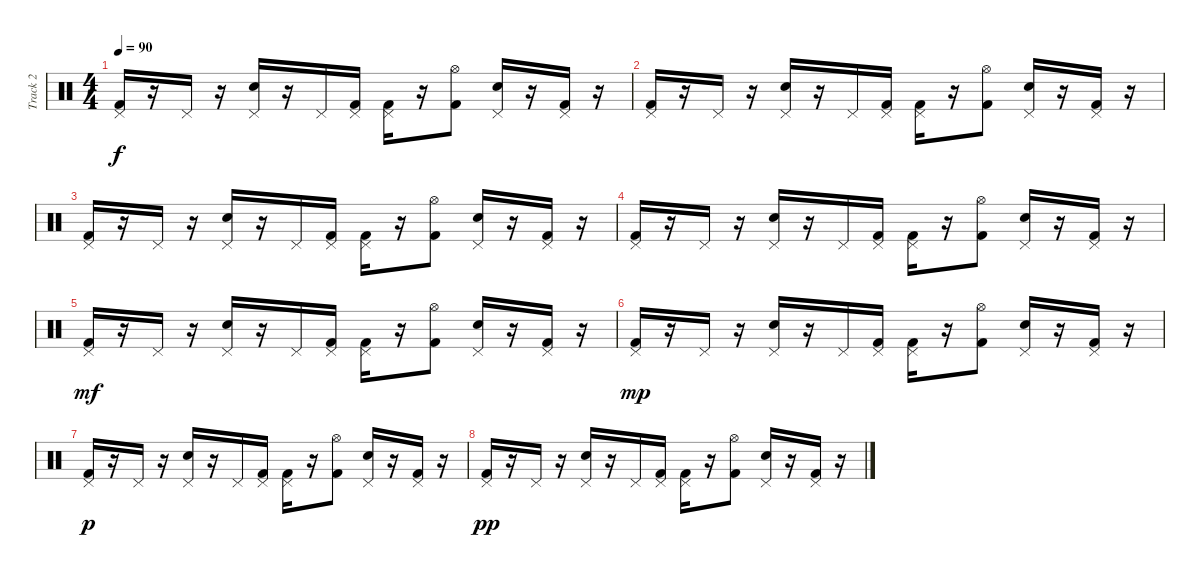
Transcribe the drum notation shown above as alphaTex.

\track ("Track 2" "Track 2") {instrument percussion}
\staff {score}
\articulation defaults
\ts (4 4)
\tempo 90
\clef neutral
\ks c
("Pedal Hi-Hat (hit)" "Kick (hit) 2").16{dy f} r.16 "Pedal Hi-Hat (hit)".16 r.16 ("Pedal Hi-Hat (hit)" "Electric Snare (hit)").16 r.16 "Pedal Hi-Hat (hit)".16 ("Pedal Hi-Hat (hit)" "Kick (hit) 2").16 ("Pedal Hi-Hat (hit)" "Kick (hit) 2").16 r.16 ("Hi-Hat (open)" "Kick (hit) 2").8 ("Pedal Hi-Hat (hit)" "Electric Snare (hit)").16 r.16 ("Pedal Hi-Hat (hit)" "Kick (hit) 2").16 r.16 |
("Pedal Hi-Hat (hit)" "Kick (hit) 2").16 r.16 "Pedal Hi-Hat (hit)".16 r.16 ("Pedal Hi-Hat (hit)" "Electric Snare (hit)").16 r.16 "Pedal Hi-Hat (hit)".16 ("Pedal Hi-Hat (hit)" "Kick (hit) 2").16 ("Pedal Hi-Hat (hit)" "Kick (hit) 2").16 r.16 ("Hi-Hat (open)" "Kick (hit) 2").8 ("Pedal Hi-Hat (hit)" "Electric Snare (hit)").16 r.16 ("Pedal Hi-Hat (hit)" "Kick (hit) 2").16 r.16 |
("Pedal Hi-Hat (hit)" "Kick (hit) 2").16 r.16 "Pedal Hi-Hat (hit)".16 r.16 ("Pedal Hi-Hat (hit)" "Electric Snare (hit)").16 r.16 "Pedal Hi-Hat (hit)".16 ("Pedal Hi-Hat (hit)" "Kick (hit) 2").16 ("Pedal Hi-Hat (hit)" "Kick (hit) 2").16 r.16 ("Hi-Hat (open)" "Kick (hit) 2").8 ("Pedal Hi-Hat (hit)" "Electric Snare (hit)").16 r.16 ("Pedal Hi-Hat (hit)" "Kick (hit) 2").16 r.16 |
("Pedal Hi-Hat (hit)" "Kick (hit) 2").16 r.16 "Pedal Hi-Hat (hit)".16 r.16 ("Pedal Hi-Hat (hit)" "Electric Snare (hit)").16 r.16 "Pedal Hi-Hat (hit)".16 ("Pedal Hi-Hat (hit)" "Kick (hit) 2").16 ("Pedal Hi-Hat (hit)" "Kick (hit) 2").16 r.16 ("Hi-Hat (open)" "Kick (hit) 2").8 ("Pedal Hi-Hat (hit)" "Electric Snare (hit)").16 r.16 ("Pedal Hi-Hat (hit)" "Kick (hit) 2").16 r.16 |
("Pedal Hi-Hat (hit)" "Kick (hit) 2").16{dy mf} r.16 "Pedal Hi-Hat (hit)".16 r.16 ("Pedal Hi-Hat (hit)" "Electric Snare (hit)").16 r.16 "Pedal Hi-Hat (hit)".16 ("Pedal Hi-Hat (hit)" "Kick (hit) 2").16 ("Pedal Hi-Hat (hit)" "Kick (hit) 2").16 r.16 ("Hi-Hat (open)" "Kick (hit) 2").8 ("Pedal Hi-Hat (hit)" "Electric Snare (hit)").16 r.16 ("Pedal Hi-Hat (hit)" "Kick (hit) 2").16 r.16 |
("Pedal Hi-Hat (hit)" "Kick (hit) 2").16{dy mp} r.16 "Pedal Hi-Hat (hit)".16 r.16 ("Pedal Hi-Hat (hit)" "Electric Snare (hit)").16 r.16 "Pedal Hi-Hat (hit)".16 ("Pedal Hi-Hat (hit)" "Kick (hit) 2").16 ("Pedal Hi-Hat (hit)" "Kick (hit) 2").16 r.16 ("Hi-Hat (open)" "Kick (hit) 2").8 ("Pedal Hi-Hat (hit)" "Electric Snare (hit)").16 r.16 ("Pedal Hi-Hat (hit)" "Kick (hit) 2").16 r.16 |
("Pedal Hi-Hat (hit)" "Kick (hit) 2").16{dy p} r.16 "Pedal Hi-Hat (hit)".16 r.16 ("Pedal Hi-Hat (hit)" "Electric Snare (hit)").16 r.16 "Pedal Hi-Hat (hit)".16 ("Pedal Hi-Hat (hit)" "Kick (hit) 2").16 ("Pedal Hi-Hat (hit)" "Kick (hit) 2").16 r.16 ("Hi-Hat (open)" "Kick (hit) 2").8 ("Pedal Hi-Hat (hit)" "Electric Snare (hit)").16 r.16 ("Pedal Hi-Hat (hit)" "Kick (hit) 2").16 r.16 |
("Pedal Hi-Hat (hit)" "Kick (hit) 2").16{dy pp} r.16 "Pedal Hi-Hat (hit)".16 r.16 ("Pedal Hi-Hat (hit)" "Electric Snare (hit)").16 r.16 "Pedal Hi-Hat (hit)".16 ("Pedal Hi-Hat (hit)" "Kick (hit) 2").16 ("Pedal Hi-Hat (hit)" "Kick (hit) 2").16 r.16 ("Hi-Hat (open)" "Kick (hit) 2").8 ("Pedal Hi-Hat (hit)" "Electric Snare (hit)").16 r.16 ("Pedal Hi-Hat (hit)" "Kick (hit) 2").16 r.16
